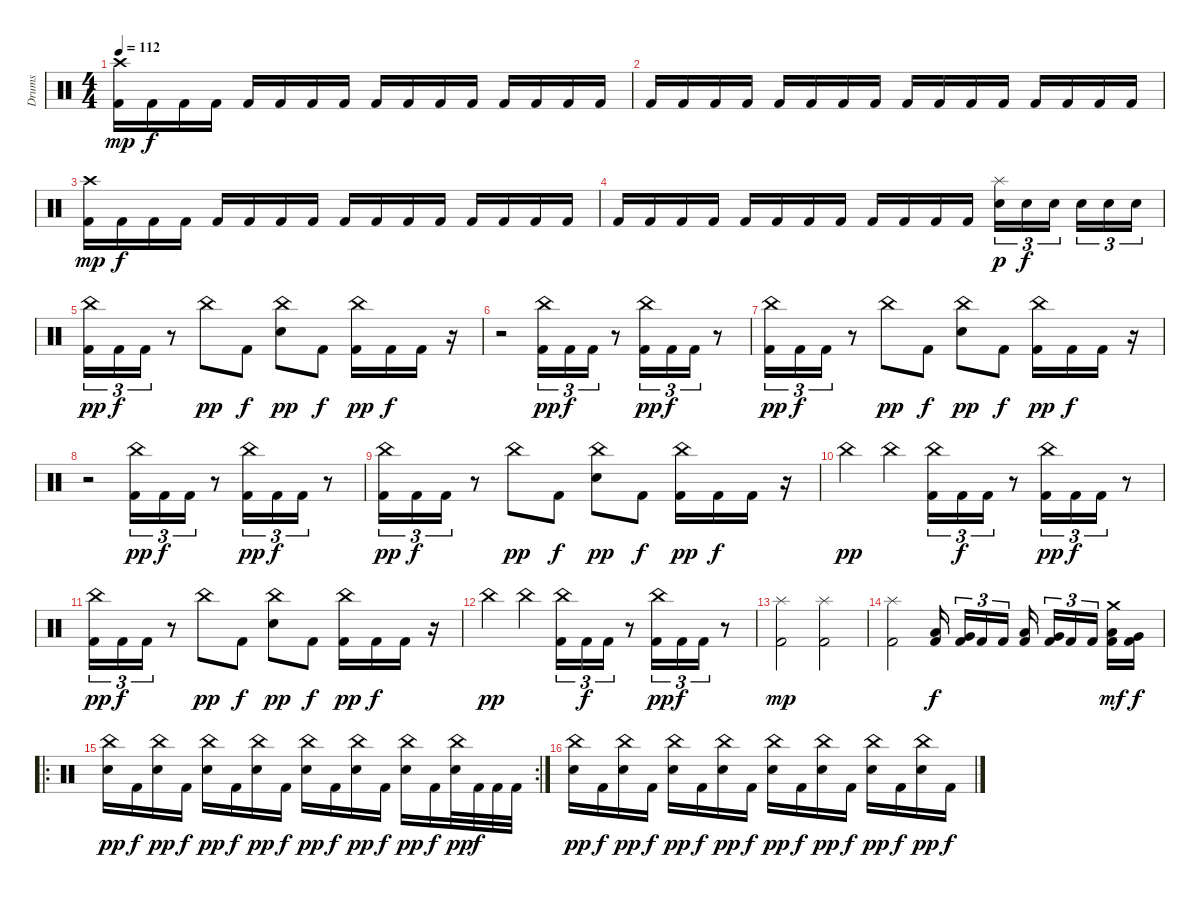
\track ("Drums" "Drums") {instrument percussion}
\staff
\articulation defaults
\ts (4 4)
\tempo 112
\clef neutral
\ks c
("Crash high (hit)" "Kick (hit) 2").16{dy mp} "Kick (hit) 2".16{dy f} "Kick (hit) 2".16 "Kick (hit) 2".16 "Kick (hit) 2".16 "Kick (hit) 2".16 "Kick (hit) 2".16 "Kick (hit) 2".16 "Kick (hit) 2".16 "Kick (hit) 2".16 "Kick (hit) 2".16 "Kick (hit) 2".16 "Kick (hit) 2".16 "Kick (hit) 2".16 "Kick (hit) 2".16 "Kick (hit) 2".16 |
"Kick (hit) 2".16 "Kick (hit) 2".16 "Kick (hit) 2".16 "Kick (hit) 2".16 "Kick (hit) 2".16 "Kick (hit) 2".16 "Kick (hit) 2".16 "Kick (hit) 2".16 "Kick (hit) 2".16 "Kick (hit) 2".16 "Kick (hit) 2".16 "Kick (hit) 2".16 "Kick (hit) 2".16 "Kick (hit) 2".16 "Kick (hit) 2".16 "Kick (hit) 2".16 |
("Crash high (hit)" "Kick (hit) 2").16{dy mp} "Kick (hit) 2".16{dy f} "Kick (hit) 2".16 "Kick (hit) 2".16 "Kick (hit) 2".16 "Kick (hit) 2".16 "Kick (hit) 2".16 "Kick (hit) 2".16 "Kick (hit) 2".16 "Kick (hit) 2".16 "Kick (hit) 2".16 "Kick (hit) 2".16 "Kick (hit) 2".16 "Kick (hit) 2".16 "Kick (hit) 2".16 "Kick (hit) 2".16 |
"Kick (hit) 2".16 "Kick (hit) 2".16 "Kick (hit) 2".16 "Kick (hit) 2".16 "Kick (hit) 2".16 "Kick (hit) 2".16 "Kick (hit) 2".16 "Kick (hit) 2".16 "Kick (hit) 2".16 "Kick (hit) 2".16 "Kick (hit) 2".16 "Kick (hit) 2".16 ("Splash (hit)" "Snare (hit) 2").16{tu (3 2) dy p} "Snare (hit) 2".16{tu (3 2) dy f} "Snare (hit) 2".16{tu (3 2) beam splitsecondary} "Snare (hit) 2".16{tu (3 2)} "Snare (hit) 2".16{tu (3 2)} "Snare (hit) 2".16{tu (3 2)} |
("China (hit)" "Kick (hit) 2").16{tu (3 2) dy pp} "Kick (hit) 2".16{tu (3 2) dy f} "Kick (hit) 2".16{tu (3 2)} r.8 "China (hit)".8{dy pp} "Kick (hit) 2".8{dy f} ("China (hit)" "Snare (hit) 2").8{dy pp} "Kick (hit) 2".8{dy f} ("China (hit)" "Kick (hit) 2").16{dy pp} "Kick (hit) 2".16{dy f} "Kick (hit) 2".16 r.16 |
r.2 ("China (hit)" "Kick (hit) 2").16{tu (3 2) dy pp} "Kick (hit) 2".16{tu (3 2) dy f} "Kick (hit) 2".16{tu (3 2)} r.8 ("China (hit)" "Kick (hit) 2").16{tu (3 2) dy pp} "Kick (hit) 2".16{tu (3 2) dy f} "Kick (hit) 2".16{tu (3 2)} r.8 |
("China (hit)" "Kick (hit) 2").16{tu (3 2) dy pp} "Kick (hit) 2".16{tu (3 2) dy f} "Kick (hit) 2".16{tu (3 2)} r.8 "China (hit)".8{dy pp} "Kick (hit) 2".8{dy f} ("China (hit)" "Snare (hit) 2").8{dy pp} "Kick (hit) 2".8{dy f} ("China (hit)" "Kick (hit) 2").16{dy pp} "Kick (hit) 2".16{dy f} "Kick (hit) 2".16 r.16 |
r.2 ("China (hit)" "Kick (hit) 2").16{tu (3 2) dy pp} "Kick (hit) 2".16{tu (3 2) dy f} "Kick (hit) 2".16{tu (3 2)} r.8 ("China (hit)" "Kick (hit) 2").16{tu (3 2) dy pp} "Kick (hit) 2".16{tu (3 2) dy f} "Kick (hit) 2".16{tu (3 2)} r.8 |
("China (hit)" "Kick (hit) 2").16{tu (3 2) dy pp} "Kick (hit) 2".16{tu (3 2) dy f} "Kick (hit) 2".16{tu (3 2)} r.8 "China (hit)".8{dy pp} "Kick (hit) 2".8{dy f} ("China (hit)" "Snare (hit) 2").8{dy pp} "Kick (hit) 2".8{dy f} ("China (hit)" "Kick (hit) 2").16{dy pp} "Kick (hit) 2".16{dy f} "Kick (hit) 2".16 r.16 |
"China (hit)".4{dy pp} "China (hit)".4 ("China (hit)" "Kick (hit) 2").16{tu (3 2)} "Kick (hit) 2".16{tu (3 2) dy f} "Kick (hit) 2".16{tu (3 2)} r.8 ("China (hit)" "Kick (hit) 2").16{tu (3 2) dy pp} "Kick (hit) 2".16{tu (3 2) dy f} "Kick (hit) 2".16{tu (3 2)} r.8 |
("China (hit)" "Kick (hit) 2").16{tu (3 2) dy pp} "Kick (hit) 2".16{tu (3 2) dy f} "Kick (hit) 2".16{tu (3 2)} r.8 "China (hit)".8{dy pp} "Kick (hit) 2".8{dy f} ("China (hit)" "Snare (hit) 2").8{dy pp} "Kick (hit) 2".8{dy f} ("China (hit)" "Kick (hit) 2").16{dy pp} "Kick (hit) 2".16{dy f} "Kick (hit) 2".16 r.16 |
"China (hit)".4{dy pp} "China (hit)".4 ("China (hit)" "Kick (hit) 2").16{tu (3 2)} "Kick (hit) 2".16{tu (3 2) dy f} "Kick (hit) 2".16{tu (3 2)} r.8 ("China (hit)" "Kick (hit) 2").16{tu (3 2) dy pp} "Kick (hit) 2".16{tu (3 2) dy f} "Kick (hit) 2".16{tu (3 2)} r.8 |
("Splash (hit)" "Kick (hit) 2").2{dy mp} ("Splash (hit)" "Kick (hit) 2").2 |
("Splash (hit)" "Kick (hit) 2").2 ("Low Floor Tom (hit)" "Kick (hit) 2").16{dy f beam splitsecondary} ("Very Low Tom (hit)" "Kick (hit) 2").16{tu (3 2)} "Kick (hit) 2".16{tu (3 2)} "Kick (hit) 2".16{tu (3 2) beam splitsecondary} ("Low Floor Tom (hit)" "Kick (hit) 2").16 ("Very Low Tom (hit)" "Kick (hit) 2").16{tu (3 2)} "Kick (hit) 2".16{tu (3 2)} "Kick (hit) 2".16{tu (3 2) beam splitsecondary} ("Crash medium (hit)" "Low Floor Tom (hit)" "Kick (hit) 2").16{dy mf} ("Very Low Tom (hit)" "Kick (hit) 2").16{dy f} |
\ro
\rc 2
("China (hit)" "Snare (hit) 2").16{dy pp} "Kick (hit) 2".16{dy f} ("China (hit)" "Snare (hit) 2").16{dy pp} "Kick (hit) 2".16{dy f} ("China (hit)" "Snare (hit) 2").16{dy pp} "Kick (hit) 2".16{dy f} ("China (hit)" "Snare (hit) 2").16{dy pp} "Kick (hit) 2".16{dy f} ("China (hit)" "Snare (hit) 2").16{dy pp} "Kick (hit) 2".16{dy f} ("China (hit)" "Snare (hit) 2").16{dy pp} "Kick (hit) 2".16{dy f} ("China (hit)" "Snare (hit) 2").16{dy pp} "Kick (hit) 2".16{dy f} ("China (hit)" "Snare (hit) 2").32{dy pp} "Kick (hit) 2".32{dy f} "Kick (hit) 2".32 "Kick (hit) 2".32 |
("China (hit)" "Snare (hit) 2").16{dy pp} "Kick (hit) 2".16{dy f} ("China (hit)" "Snare (hit) 2").16{dy pp} "Kick (hit) 2".16{dy f} ("China (hit)" "Snare (hit) 2").16{dy pp} "Kick (hit) 2".16{dy f} ("China (hit)" "Snare (hit) 2").16{dy pp} "Kick (hit) 2".16{dy f} ("China (hit)" "Snare (hit) 2").16{dy pp} "Kick (hit) 2".16{dy f} ("China (hit)" "Snare (hit) 2").16{dy pp} "Kick (hit) 2".16{dy f} ("China (hit)" "Snare (hit) 2").16{dy pp} "Kick (hit) 2".16{dy f} ("China (hit)" "Snare (hit) 2").16{dy pp} "Kick (hit) 2".16{dy f}
